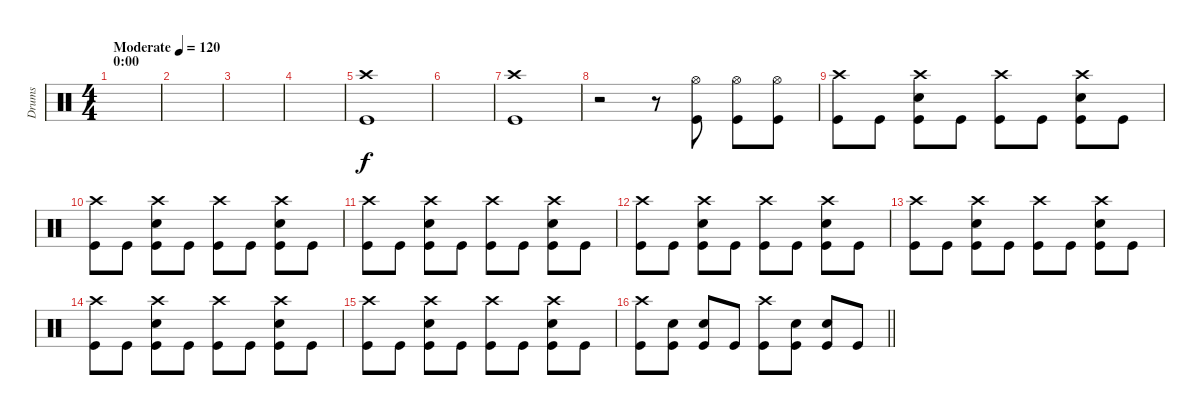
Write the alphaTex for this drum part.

\track ("Drums" "Drums") {instrument percussion}
\staff {score}
\articulation defaults
\ts (4 4)
\section ("" "0:00")
\tempo (120 "Moderate")
\clef neutral
\ks c
|
|
|
|
("Crash high (hit)" "Kick (hit)").1 |
|
("Crash high (hit)" "Kick (hit)").1 |
r.2 r.8 ("Hi-Hat (open)" "Kick (hit)").8 ("Hi-Hat (open)" "Kick (hit)").8 ("Hi-Hat (open)" "Kick (hit)").8 |
("Crash high (hit)" "Kick (hit)").8 "Kick (hit)".8 ("Crash high (hit)" "Electric Snare (hit)" "Kick (hit)").8 "Kick (hit)".8 ("Crash high (hit)" "Kick (hit)").8 "Kick (hit)".8 ("Crash high (hit)" "Electric Snare (hit)" "Kick (hit)").8 "Kick (hit)".8 |
("Crash high (hit)" "Kick (hit)").8 "Kick (hit)".8 ("Crash high (hit)" "Electric Snare (hit)" "Kick (hit)").8 "Kick (hit)".8 ("Crash high (hit)" "Kick (hit)").8 "Kick (hit)".8 ("Crash high (hit)" "Electric Snare (hit)" "Kick (hit)").8 "Kick (hit)".8 |
("Crash high (hit)" "Kick (hit)").8 "Kick (hit)".8 ("Crash high (hit)" "Electric Snare (hit)" "Kick (hit)").8 "Kick (hit)".8 ("Crash high (hit)" "Kick (hit)").8 "Kick (hit)".8 ("Crash high (hit)" "Electric Snare (hit)" "Kick (hit)").8 "Kick (hit)".8 |
("Crash high (hit)" "Kick (hit)").8 "Kick (hit)".8 ("Crash high (hit)" "Electric Snare (hit)" "Kick (hit)").8 "Kick (hit)".8 ("Crash high (hit)" "Kick (hit)").8 "Kick (hit)".8 ("Crash high (hit)" "Electric Snare (hit)" "Kick (hit)").8 "Kick (hit)".8 |
("Crash high (hit)" "Kick (hit)").8 "Kick (hit)".8 ("Crash high (hit)" "Electric Snare (hit)" "Kick (hit)").8 "Kick (hit)".8 ("Crash high (hit)" "Kick (hit)").8 "Kick (hit)".8 ("Crash high (hit)" "Electric Snare (hit)" "Kick (hit)").8 "Kick (hit)".8 |
("Crash high (hit)" "Kick (hit)").8 "Kick (hit)".8 ("Crash high (hit)" "Electric Snare (hit)" "Kick (hit)").8 "Kick (hit)".8 ("Crash high (hit)" "Kick (hit)").8 "Kick (hit)".8 ("Crash high (hit)" "Electric Snare (hit)" "Kick (hit)").8 "Kick (hit)".8 |
("Crash high (hit)" "Kick (hit)").8 "Kick (hit)".8 ("Crash high (hit)" "Electric Snare (hit)" "Kick (hit)").8 "Kick (hit)".8 ("Crash high (hit)" "Kick (hit)").8 "Kick (hit)".8 ("Crash high (hit)" "Electric Snare (hit)" "Kick (hit)").8 "Kick (hit)".8 |
\barLineRight lightlight
("Crash high (hit)" "Kick (hit)").8 ("Electric Snare (hit)" "Kick (hit)").8 ("Electric Snare (hit)" "Kick (hit)").8 "Kick (hit)".8 ("Crash high (hit)" "Kick (hit)").8 ("Electric Snare (hit)" "Kick (hit)").8 ("Electric Snare (hit)" "Kick (hit)").8 "Kick (hit)".8
